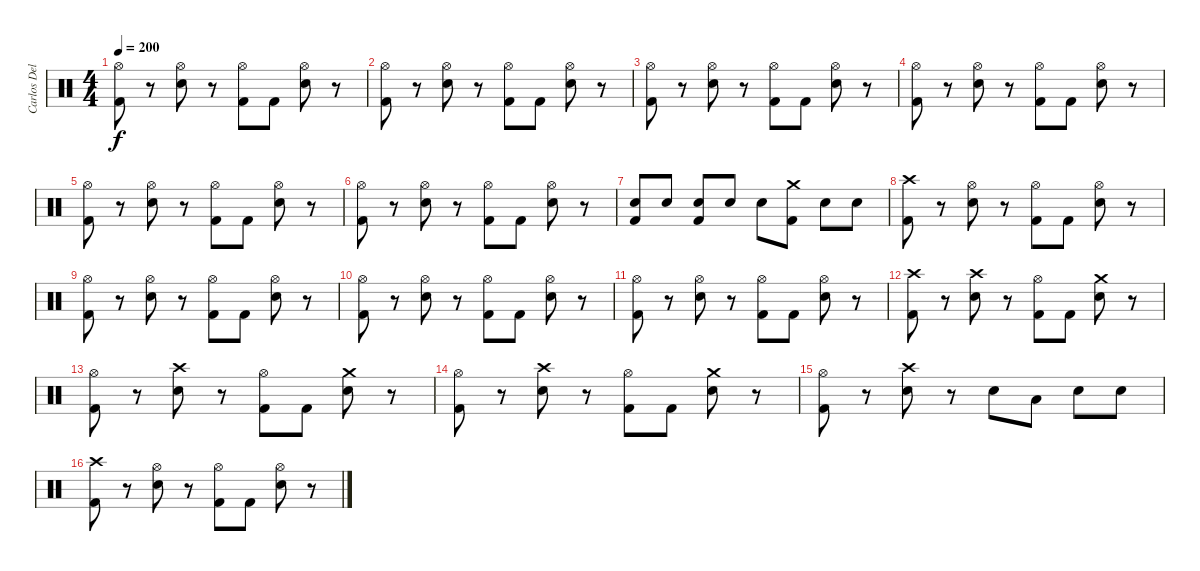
\track ("Carlos Delgado" "Carlos Del") {instrument percussion}
\staff {score}
\articulation defaults
\ts (4 4)
\tempo 200
\clef neutral
\ks c
("Kick (hit) 2" "Hi-Hat (open)").8{dy f} r.8 ("Electric Snare (hit)" "Hi-Hat (open)").8 r.8 ("Hi-Hat (open)" "Kick (hit) 2").8 "Kick (hit) 2".8 ("Hi-Hat (open)" "Electric Snare (hit)").8 r.8 |
("Kick (hit) 2" "Hi-Hat (open)").8 r.8 ("Electric Snare (hit)" "Hi-Hat (open)").8 r.8 ("Kick (hit) 2" "Hi-Hat (open)").8 "Kick (hit) 2".8 ("Electric Snare (hit)" "Hi-Hat (open)").8 r.8 |
("Kick (hit) 2" "Hi-Hat (open)").8 r.8 ("Hi-Hat (open)" "Electric Snare (hit)").8 r.8 ("Hi-Hat (open)" "Kick (hit) 2").8 "Kick (hit) 2".8 ("Hi-Hat (open)" "Electric Snare (hit)").8 r.8 |
("Kick (hit) 2" "Hi-Hat (open)").8 r.8 ("Electric Snare (hit)" "Hi-Hat (open)").8 r.8 ("Hi-Hat (open)" "Kick (hit) 2").8 "Kick (hit) 2".8 ("Hi-Hat (open)" "Electric Snare (hit)").8 r.8 |
("Kick (hit) 2" "Hi-Hat (open)").8 r.8 ("Electric Snare (hit)" "Hi-Hat (open)").8 r.8 ("Kick (hit) 2" "Hi-Hat (open)").8 "Kick (hit) 2".8 ("Electric Snare (hit)" "Hi-Hat (open)").8 r.8 |
("Kick (hit) 2" "Hi-Hat (open)").8 r.8 ("Electric Snare (hit)" "Hi-Hat (open)").8 r.8 ("Hi-Hat (open)" "Kick (hit) 2").8 "Kick (hit) 2".8 ("Hi-Hat (open)" "Electric Snare (hit)").8 r.8 |
("Electric Snare (hit)" "Kick (hit) 2").8 "Electric Snare (hit)".8 ("Kick (hit) 2" "Electric Snare (hit)").8 "Electric Snare (hit)".8 "Electric Snare (hit)".8 ("Kick (hit) 2" "Crash medium (hit)").8 "Electric Snare (hit)".8 "Electric Snare (hit)".8 |
("Crash high (hit)" "Kick (hit) 2").8 r.8 ("Electric Snare (hit)" "Hi-Hat (open)").8 r.8 ("Kick (hit) 2" "Hi-Hat (open)").8 "Kick (hit) 2".8 ("Electric Snare (hit)" "Hi-Hat (open)").8 r.8 |
("Kick (hit) 2" "Hi-Hat (open)").8 r.8 ("Electric Snare (hit)" "Hi-Hat (open)").8 r.8 ("Hi-Hat (open)" "Kick (hit) 2").8 "Kick (hit) 2".8 ("Hi-Hat (open)" "Electric Snare (hit)").8 r.8 |
("Kick (hit) 2" "Hi-Hat (open)").8 r.8 ("Electric Snare (hit)" "Hi-Hat (open)").8 r.8 ("Kick (hit) 2" "Hi-Hat (open)").8 "Kick (hit) 2".8 ("Electric Snare (hit)" "Hi-Hat (open)").8 r.8 |
("Kick (hit) 2" "Hi-Hat (open)").8 r.8 ("Hi-Hat (open)" "Electric Snare (hit)").8 r.8 ("Hi-Hat (open)" "Kick (hit) 2").8 "Kick (hit) 2".8 ("Hi-Hat (open)" "Electric Snare (hit)").8 r.8 |
("Kick (hit) 2" "Crash high (hit)").8 r.8 ("Electric Snare (hit)" "Crash high (hit)").8 r.8 ("Hi-Hat (open)" "Kick (hit) 2").8 "Kick (hit) 2".8 ("Crash medium (hit)" "Electric Snare (hit)").8 r.8 |
("Kick (hit) 2" "Hi-Hat (open)").8 r.8 ("Electric Snare (hit)" "Crash high (hit)").8 r.8 ("Kick (hit) 2" "Hi-Hat (open)").8 "Kick (hit) 2".8 ("Electric Snare (hit)" "Crash medium (hit)").8 r.8 |
("Kick (hit) 2" "Hi-Hat (open)").8 r.8 ("Electric Snare (hit)" "Crash high (hit)").8 r.8 ("Hi-Hat (open)" "Kick (hit) 2").8 "Kick (hit) 2".8 ("Crash medium (hit)" "Electric Snare (hit)").8 r.8 |
("Kick (hit) 2" "Hi-Hat (open)").8 r.8 ("Electric Snare (hit)" "Crash high (hit)").8 r.8 "Electric Snare (hit)".8 "Low Tom (hit)".8 "Electric Snare (hit)".8 "Electric Snare (hit)".8 |
("Crash high (hit)" "Kick (hit) 2").8 r.8 ("Electric Snare (hit)" "Hi-Hat (open)").8 r.8 ("Kick (hit) 2" "Hi-Hat (open)").8 "Kick (hit) 2".8 ("Electric Snare (hit)" "Hi-Hat (open)").8 r.8
